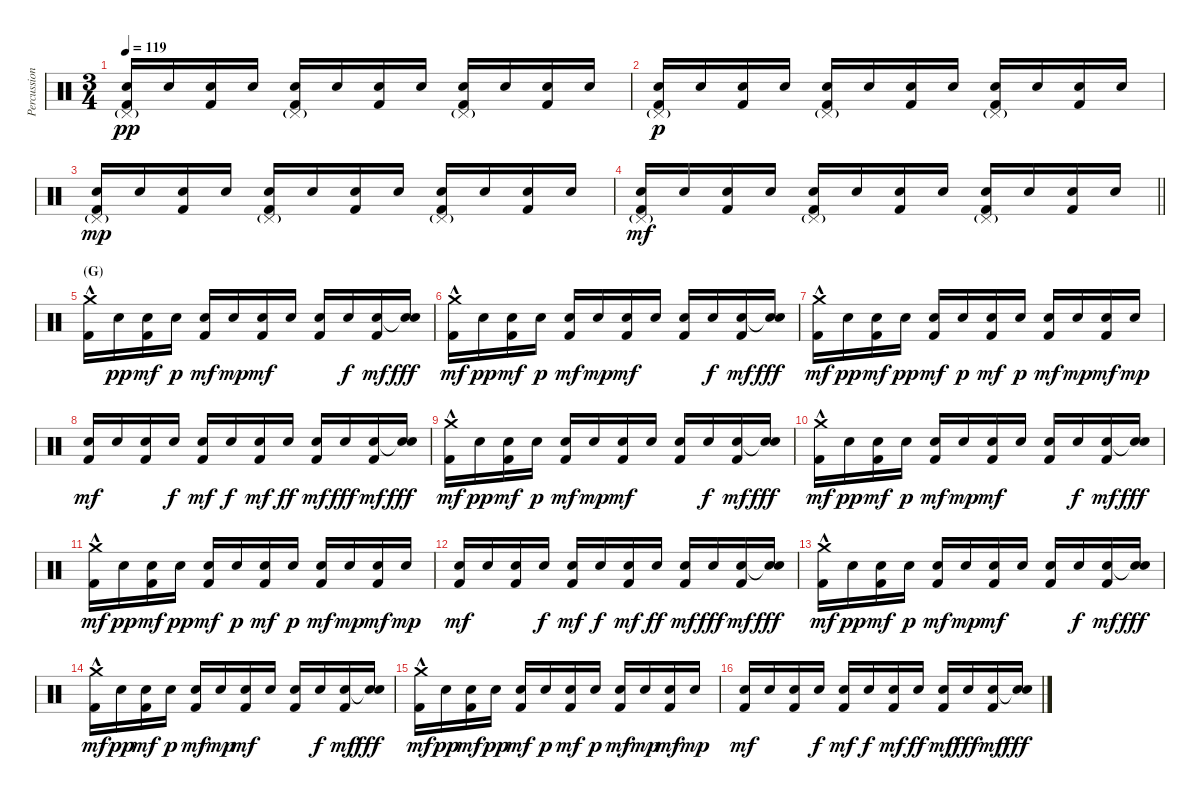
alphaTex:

\track ("Percussion 1" "Percussion") {instrument percussion}
\staff {score}
\articulation defaults
\ts (3 4)
\tempo 119
\clef neutral
\ks c
("Pedal Hi-Hat (hit)"{g} "Snare (hit) 2" "Kick (hit) 2").16{dy pp volume 14} "Snare (hit) 2".16 ("Snare (hit) 2" "Kick (hit) 2").16 "Snare (hit) 2".16 ("Pedal Hi-Hat (hit)"{g} "Snare (hit) 2" "Kick (hit) 2").16 "Snare (hit) 2".16 ("Snare (hit) 2" "Kick (hit) 2").16 "Snare (hit) 2".16 ("Pedal Hi-Hat (hit)"{g} "Snare (hit) 2" "Kick (hit) 2").16 "Snare (hit) 2".16 ("Snare (hit) 2" "Kick (hit) 2").16 "Snare (hit) 2".16 |
("Pedal Hi-Hat (hit)"{g} "Snare (hit) 2" "Kick (hit) 2").16{dy p} "Snare (hit) 2".16 ("Snare (hit) 2" "Kick (hit) 2").16 "Snare (hit) 2".16 ("Pedal Hi-Hat (hit)"{g} "Snare (hit) 2" "Kick (hit) 2").16 "Snare (hit) 2".16 ("Snare (hit) 2" "Kick (hit) 2").16 "Snare (hit) 2".16 ("Pedal Hi-Hat (hit)"{g} "Snare (hit) 2" "Kick (hit) 2").16 "Snare (hit) 2".16 ("Snare (hit) 2" "Kick (hit) 2").16 "Snare (hit) 2".16 |
("Pedal Hi-Hat (hit)"{g} "Snare (hit) 2" "Kick (hit) 2").16{dy mp} "Snare (hit) 2".16 ("Snare (hit) 2" "Kick (hit) 2").16 "Snare (hit) 2".16 ("Pedal Hi-Hat (hit)"{g} "Snare (hit) 2" "Kick (hit) 2").16 "Snare (hit) 2".16 ("Snare (hit) 2" "Kick (hit) 2").16 "Snare (hit) 2".16 ("Pedal Hi-Hat (hit)"{g} "Snare (hit) 2" "Kick (hit) 2").16 "Snare (hit) 2".16 ("Snare (hit) 2" "Kick (hit) 2").16 "Snare (hit) 2".16 |
\barLineRight lightlight
("Pedal Hi-Hat (hit)"{g} "Snare (hit) 2" "Kick (hit) 2").16{dy mf} "Snare (hit) 2".16 ("Snare (hit) 2" "Kick (hit) 2").16 "Snare (hit) 2".16 ("Pedal Hi-Hat (hit)"{g} "Snare (hit) 2" "Kick (hit) 2").16 "Snare (hit) 2".16 ("Snare (hit) 2" "Kick (hit) 2").16 "Snare (hit) 2".16 ("Pedal Hi-Hat (hit)"{g} "Snare (hit) 2" "Kick (hit) 2").16 "Snare (hit) 2".16 ("Snare (hit) 2" "Kick (hit) 2").16 "Snare (hit) 2".16 |
\section ("" "(G)")
("Crash medium (hit)"{hac} "Kick (hit) 2").16 "Snare (hit) 2".16{dy pp} ("Snare (hit) 2" "Kick (hit) 2").16{dy mf} "Snare (hit) 2".16{dy p} ("Snare (hit) 2" "Kick (hit) 2").16{dy mf} "Snare (hit) 2".16{dy mp} ("Snare (hit) 2" "Kick (hit) 2").16{dy mf} "Snare (hit) 2".16 ("Snare (hit) 2" "Kick (hit) 2").16 "Snare (hit) 2".16{dy f} ("Snare (hit) 2" "Kick (hit) 2").16{dy mf} ("Snare (hit)"{t} "Snare (hit) 2").16{dy fff} |
("Crash medium (hit)"{hac} "Kick (hit) 2").16{dy mf} "Snare (hit) 2".16{dy pp} ("Snare (hit) 2" "Kick (hit) 2").16{dy mf} "Snare (hit) 2".16{dy p} ("Snare (hit) 2" "Kick (hit) 2").16{dy mf} "Snare (hit) 2".16{dy mp} ("Snare (hit) 2" "Kick (hit) 2").16{dy mf} "Snare (hit) 2".16 ("Snare (hit) 2" "Kick (hit) 2").16 "Snare (hit) 2".16{dy f} ("Snare (hit) 2" "Kick (hit) 2").16{dy mf} ("Snare (hit)"{t} "Snare (hit) 2").16{dy fff} |
("Crash medium (hit)"{hac} "Kick (hit) 2").16{dy mf} "Snare (hit) 2".16{dy pp} ("Snare (hit) 2" "Kick (hit) 2").16{dy mf} "Snare (hit) 2".16{dy pp} ("Snare (hit) 2" "Kick (hit) 2").16{dy mf} "Snare (hit) 2".16{dy p} ("Snare (hit) 2" "Kick (hit) 2").16{dy mf} "Snare (hit) 2".16{dy p} ("Snare (hit) 2" "Kick (hit) 2").16{dy mf} "Snare (hit) 2".16{dy mp} ("Snare (hit) 2" "Kick (hit) 2").16{dy mf} "Snare (hit) 2".16{dy mp} |
("Snare (hit) 2" "Kick (hit) 2").16{dy mf} "Snare (hit) 2".16 ("Snare (hit) 2" "Kick (hit) 2").16 "Snare (hit) 2".16{dy f} ("Snare (hit) 2" "Kick (hit) 2").16{dy mf} "Snare (hit) 2".16{dy f} ("Snare (hit) 2" "Kick (hit) 2").16{dy mf} "Snare (hit) 2".16{dy ff} ("Snare (hit) 2" "Kick (hit) 2").16{dy mf} "Snare (hit) 2".16{dy fff} ("Snare (hit) 2" "Kick (hit) 2").16{dy mf} ("Snare (hit)"{t} "Snare (hit) 2").16{dy fff} |
("Crash medium (hit)"{hac} "Kick (hit) 2").16{dy mf} "Snare (hit) 2".16{dy pp} ("Snare (hit) 2" "Kick (hit) 2").16{dy mf} "Snare (hit) 2".16{dy p} ("Snare (hit) 2" "Kick (hit) 2").16{dy mf} "Snare (hit) 2".16{dy mp} ("Snare (hit) 2" "Kick (hit) 2").16{dy mf} "Snare (hit) 2".16 ("Snare (hit) 2" "Kick (hit) 2").16 "Snare (hit) 2".16{dy f} ("Snare (hit) 2" "Kick (hit) 2").16{dy mf} ("Snare (hit)"{t} "Snare (hit) 2").16{dy fff} |
("Crash medium (hit)"{hac} "Kick (hit) 2").16{dy mf} "Snare (hit) 2".16{dy pp} ("Snare (hit) 2" "Kick (hit) 2").16{dy mf} "Snare (hit) 2".16{dy p} ("Snare (hit) 2" "Kick (hit) 2").16{dy mf} "Snare (hit) 2".16{dy mp} ("Snare (hit) 2" "Kick (hit) 2").16{dy mf} "Snare (hit) 2".16 ("Snare (hit) 2" "Kick (hit) 2").16 "Snare (hit) 2".16{dy f} ("Snare (hit) 2" "Kick (hit) 2").16{dy mf} ("Snare (hit)"{t} "Snare (hit) 2").16{dy fff} |
("Crash medium (hit)"{hac} "Kick (hit) 2").16{dy mf} "Snare (hit) 2".16{dy pp} ("Snare (hit) 2" "Kick (hit) 2").16{dy mf} "Snare (hit) 2".16{dy pp} ("Snare (hit) 2" "Kick (hit) 2").16{dy mf} "Snare (hit) 2".16{dy p} ("Snare (hit) 2" "Kick (hit) 2").16{dy mf} "Snare (hit) 2".16{dy p} ("Snare (hit) 2" "Kick (hit) 2").16{dy mf} "Snare (hit) 2".16{dy mp} ("Snare (hit) 2" "Kick (hit) 2").16{dy mf} "Snare (hit) 2".16{dy mp} |
("Snare (hit) 2" "Kick (hit) 2").16{dy mf} "Snare (hit) 2".16 ("Snare (hit) 2" "Kick (hit) 2").16 "Snare (hit) 2".16{dy f} ("Snare (hit) 2" "Kick (hit) 2").16{dy mf} "Snare (hit) 2".16{dy f} ("Snare (hit) 2" "Kick (hit) 2").16{dy mf} "Snare (hit) 2".16{dy ff} ("Snare (hit) 2" "Kick (hit) 2").16{dy mf} "Snare (hit) 2".16{dy fff} ("Snare (hit) 2" "Kick (hit) 2").16{dy mf} ("Snare (hit)"{t} "Snare (hit) 2").16{dy fff} |
("Crash medium (hit)"{hac} "Kick (hit) 2").16{dy mf} "Snare (hit) 2".16{dy pp} ("Snare (hit) 2" "Kick (hit) 2").16{dy mf} "Snare (hit) 2".16{dy p} ("Snare (hit) 2" "Kick (hit) 2").16{dy mf} "Snare (hit) 2".16{dy mp} ("Snare (hit) 2" "Kick (hit) 2").16{dy mf} "Snare (hit) 2".16 ("Snare (hit) 2" "Kick (hit) 2").16 "Snare (hit) 2".16{dy f} ("Snare (hit) 2" "Kick (hit) 2").16{dy mf} ("Snare (hit)"{t} "Snare (hit) 2").16{dy fff} |
("Crash medium (hit)"{hac} "Kick (hit) 2").16{dy mf} "Snare (hit) 2".16{dy pp} ("Snare (hit) 2" "Kick (hit) 2").16{dy mf} "Snare (hit) 2".16{dy p} ("Snare (hit) 2" "Kick (hit) 2").16{dy mf} "Snare (hit) 2".16{dy mp} ("Snare (hit) 2" "Kick (hit) 2").16{dy mf} "Snare (hit) 2".16 ("Snare (hit) 2" "Kick (hit) 2").16 "Snare (hit) 2".16{dy f} ("Snare (hit) 2" "Kick (hit) 2").16{dy mf} ("Snare (hit)"{t} "Snare (hit) 2").16{dy fff} |
("Crash medium (hit)"{hac} "Kick (hit) 2").16{dy mf} "Snare (hit) 2".16{dy pp} ("Snare (hit) 2" "Kick (hit) 2").16{dy mf} "Snare (hit) 2".16{dy pp} ("Snare (hit) 2" "Kick (hit) 2").16{dy mf} "Snare (hit) 2".16{dy p} ("Snare (hit) 2" "Kick (hit) 2").16{dy mf} "Snare (hit) 2".16{dy p} ("Snare (hit) 2" "Kick (hit) 2").16{dy mf} "Snare (hit) 2".16{dy mp} ("Snare (hit) 2" "Kick (hit) 2").16{dy mf} "Snare (hit) 2".16{dy mp} |
("Snare (hit) 2" "Kick (hit) 2").16{dy mf} "Snare (hit) 2".16 ("Snare (hit) 2" "Kick (hit) 2").16 "Snare (hit) 2".16{dy f} ("Snare (hit) 2" "Kick (hit) 2").16{dy mf} "Snare (hit) 2".16{dy f} ("Snare (hit) 2" "Kick (hit) 2").16{dy mf} "Snare (hit) 2".16{dy ff} ("Snare (hit) 2" "Kick (hit) 2").16{dy mf} "Snare (hit) 2".16{dy fff} ("Snare (hit) 2" "Kick (hit) 2").16{dy mf} ("Snare (hit)"{t} "Snare (hit) 2").16{dy fff}
